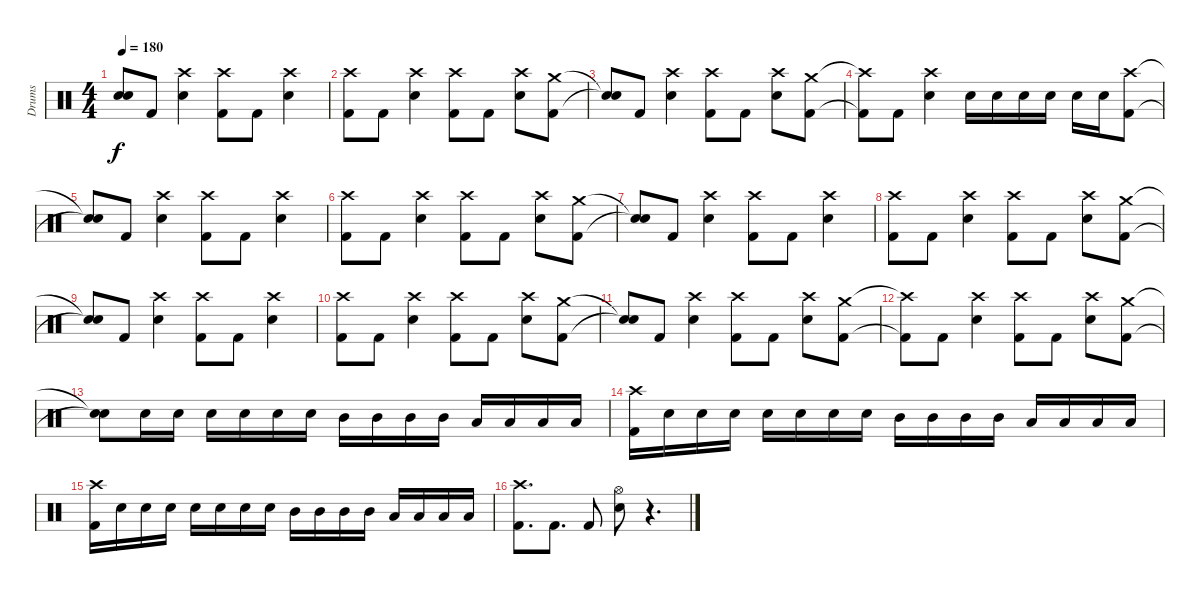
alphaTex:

\track ("Drums" "Drums") {instrument percussion}
\staff {score}
\articulation defaults
\ts (4 4)
\tempo 180
\clef neutral
\ks c
("Snare (hit)"{t} "Snare (hit)"{t}).8{dy f} "Kick (hit) 2".8 ("Crash high (hit)" "Electric Snare (hit)").4 ("Crash high (hit)" "Kick (hit) 2").8 "Kick (hit) 2".8 ("Crash high (hit)" "Electric Snare (hit)").4 |
("Crash high (hit)" "Kick (hit) 2").8 "Kick (hit) 2".8 ("Crash high (hit)" "Electric Snare (hit)").4 ("Crash high (hit)" "Kick (hit) 2").8 "Kick (hit) 2".8 ("Crash high (hit)" "Electric Snare (hit)").8 ("Crash medium (hit)" "Kick (hit) 2").8 |
("Snare (hit)"{t} "Snare (hit)"{t}).8 "Kick (hit) 2".8 ("Crash high (hit)" "Electric Snare (hit)").4 ("Crash high (hit)" "Kick (hit) 2").8 "Kick (hit) 2".8 ("Crash high (hit)" "Electric Snare (hit)").8 ("Crash medium (hit)" "Kick (hit) 2").8 |
("Crash high (hit)"{t} "Kick (hit) 2"{t}).8 "Kick (hit) 2".8 ("Crash high (hit)" "Electric Snare (hit)").4 "Electric Snare (hit)".16 "Electric Snare (hit)".16 "Electric Snare (hit)".16 "Electric Snare (hit)".16 "Electric Snare (hit)".16 "Electric Snare (hit)".16 ("Crash high (hit)" "Kick (hit) 2").8 |
("Snare (hit)"{t} "Snare (hit)"{t}).8 "Kick (hit) 2".8 ("Crash high (hit)" "Electric Snare (hit)").4 ("Crash high (hit)" "Kick (hit) 2").8 "Kick (hit) 2".8 ("Crash high (hit)" "Electric Snare (hit)").4 |
("Crash high (hit)" "Kick (hit) 2").8 "Kick (hit) 2".8 ("Crash high (hit)" "Electric Snare (hit)").4 ("Crash high (hit)" "Kick (hit) 2").8 "Kick (hit) 2".8 ("Crash high (hit)" "Electric Snare (hit)").8 ("Crash medium (hit)" "Kick (hit) 2").8 |
("Snare (hit)"{t} "Snare (hit)"{t}).8 "Kick (hit) 2".8 ("Crash high (hit)" "Electric Snare (hit)").4 ("Crash high (hit)" "Kick (hit) 2").8 "Kick (hit) 2".8 ("Crash high (hit)" "Electric Snare (hit)").4 |
("Crash high (hit)" "Kick (hit) 2").8 "Kick (hit) 2".8 ("Crash high (hit)" "Electric Snare (hit)").4 ("Crash high (hit)" "Kick (hit) 2").8 "Kick (hit) 2".8 ("Crash high (hit)" "Electric Snare (hit)").8 ("Crash medium (hit)" "Kick (hit) 2").8 |
("Snare (hit)"{t} "Snare (hit)"{t}).8 "Kick (hit) 2".8 ("Crash high (hit)" "Electric Snare (hit)").4 ("Crash high (hit)" "Kick (hit) 2").8 "Kick (hit) 2".8 ("Crash high (hit)" "Electric Snare (hit)").4 |
("Crash high (hit)" "Kick (hit) 2").8 "Kick (hit) 2".8 ("Crash high (hit)" "Electric Snare (hit)").4 ("Crash high (hit)" "Kick (hit) 2").8 "Kick (hit) 2".8 ("Crash high (hit)" "Electric Snare (hit)").8 ("Crash medium (hit)" "Kick (hit) 2").8 |
("Snare (hit)"{t} "Snare (hit)"{t}).8 "Kick (hit) 2".8 ("Crash high (hit)" "Electric Snare (hit)").4 ("Crash high (hit)" "Kick (hit) 2").8 "Kick (hit) 2".8 ("Crash high (hit)" "Electric Snare (hit)").8 ("Crash medium (hit)" "Kick (hit) 2").8 |
("Crash high (hit)"{t} "Kick (hit) 2"{t}).8 "Kick (hit) 2".8 ("Crash high (hit)" "Electric Snare (hit)").4 ("Crash high (hit)" "Kick (hit) 2").8 "Kick (hit) 2".8 ("Crash high (hit)" "Electric Snare (hit)").8 ("Crash medium (hit)" "Kick (hit) 2").8 |
("Snare (hit)"{t} "Snare (hit)"{t}).8 "Electric Snare (hit)".16 "Electric Snare (hit)".16 "Electric Snare (hit)".16 "Electric Snare (hit)".16 "Electric Snare (hit)".16 "Electric Snare (hit)".16 "Mid Tom (hit)".16 "Mid Tom (hit)".16 "Mid Tom (hit)".16 "Mid Tom (hit)".16 "Low Tom (hit)".16 "Low Tom (hit)".16 "Low Tom (hit)".16 "Low Tom (hit)".16 |
("Crash high (hit)" "Kick (hit) 2").16 "Electric Snare (hit)".16 "Electric Snare (hit)".16 "Electric Snare (hit)".16 "Electric Snare (hit)".16 "Electric Snare (hit)".16 "Electric Snare (hit)".16 "Electric Snare (hit)".16 "Mid Tom (hit)".16 "Mid Tom (hit)".16 "Mid Tom (hit)".16 "Mid Tom (hit)".16 "Low Tom (hit)".16 "Low Tom (hit)".16 "Low Tom (hit)".16 "Low Tom (hit)".16 |
("Crash high (hit)" "Kick (hit) 2").16 "Electric Snare (hit)".16 "Electric Snare (hit)".16 "Electric Snare (hit)".16 "Electric Snare (hit)".16 "Electric Snare (hit)".16 "Electric Snare (hit)".16 "Electric Snare (hit)".16 "Mid Tom (hit)".16 "Mid Tom (hit)".16 "Mid Tom (hit)".16 "Mid Tom (hit)".16 "Low Tom (hit)".16 "Low Tom (hit)".16 "Low Tom (hit)".16 "Low Tom (hit)".16 |
("Crash high (hit)" "Kick (hit) 2").8{d} "Kick (hit) 2".8{d} "Kick (hit) 2".8 ("Hi-Hat (open)" "Electric Snare (hit)").8 r.4{d volume 0}
